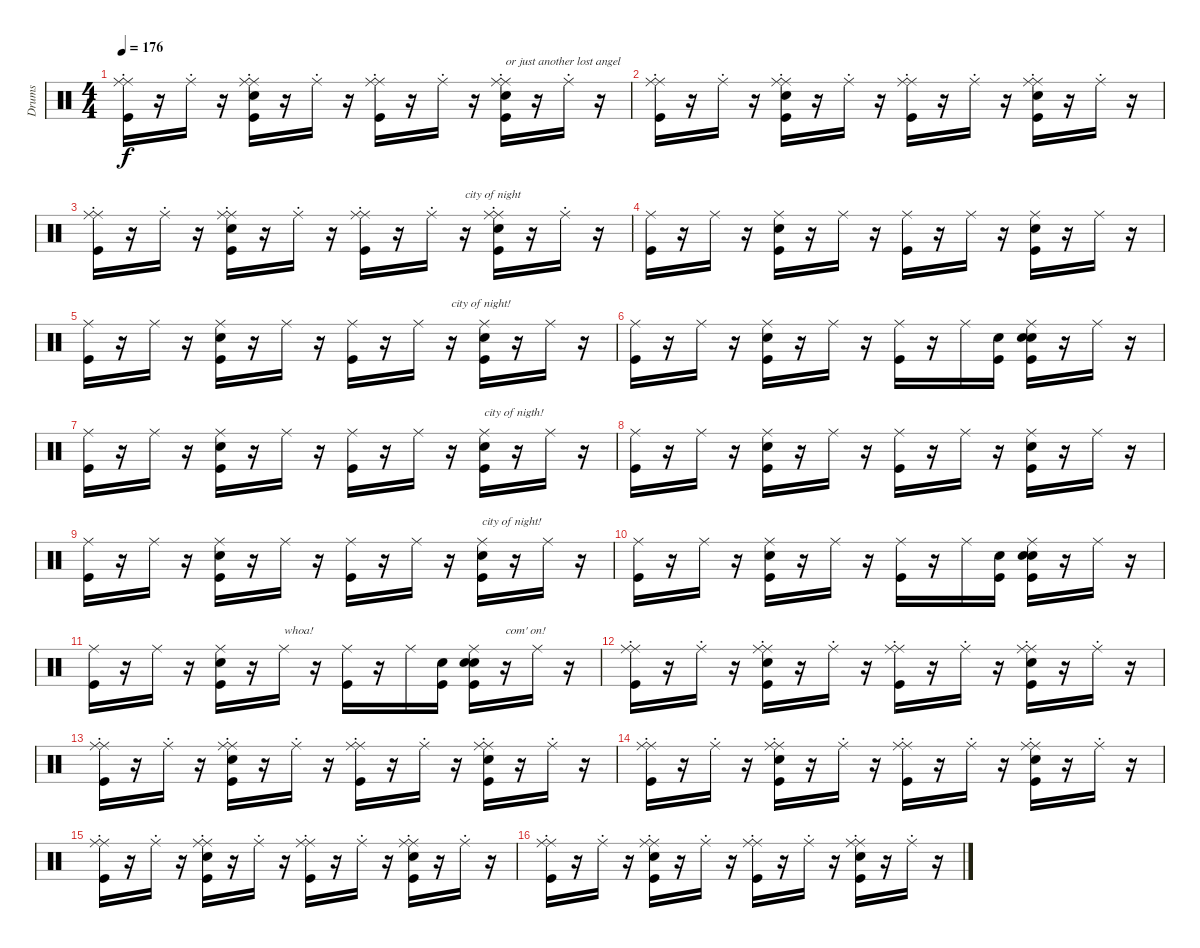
\track ("Drums" "Drums") {instrument percussion}
\staff {score}
\articulation defaults
\ts (4 4)
\tempo 176
\clef neutral
\ks c
("Ride (middle)" "Kick (hit)" "Ride (choke)").16{dy f} r.16 "Ride (choke)".16 r.16 ("Ride (middle)" "Kick (hit)" "Snare (hit) 2" "Ride (choke)").16 r.16 "Ride (choke)".16 r.16 ("Ride (middle)" "Kick (hit)" "Ride (choke)").16 r.16 "Ride (choke)".16 r.16 ("Kick (hit)" "Snare (hit) 2" "Ride (choke)" "Ride (middle)").16{txt "or just another lost angel"} r.16 "Ride (choke)".16 r.16 |
("Ride (middle)" "Kick (hit)" "Ride (choke)").16 r.16 "Ride (choke)".16 r.16 ("Ride (middle)" "Kick (hit)" "Snare (hit) 2" "Ride (choke)").16 r.16 "Ride (choke)".16 r.16 ("Ride (middle)" "Kick (hit)" "Ride (choke)").16 r.16 "Ride (choke)".16 r.16 ("Ride (middle)" "Kick (hit)" "Snare (hit) 2" "Ride (choke)").16 r.16 "Ride (choke)".16 r.16 |
("Ride (middle)" "Kick (hit)" "Ride (choke)").16 r.16 "Ride (choke)".16 r.16 ("Ride (middle)" "Kick (hit)" "Snare (hit) 2" "Ride (choke)").16 r.16 "Ride (choke)".16 r.16 ("Ride (middle)" "Kick (hit)" "Ride (choke)").16 r.16 "Ride (choke)".16 r.16{txt "city of night"} ("Kick (hit)" "Snare (hit) 2" "Ride (choke)" "Ride (middle)").16 r.16 "Ride (choke)".16 r.16 |
("Kick (hit)" "Ride (middle)").16 r.16 "Ride (middle)".16 r.16 ("Snare (hit) 2" "Kick (hit)" "Ride (middle)").16 r.16 "Ride (middle)".16 r.16 ("Kick (hit)" "Ride (middle)").16 r.16 "Ride (middle)".16 r.16 ("Snare (hit) 2" "Kick (hit)" "Ride (middle)").16 r.16 "Ride (middle)".16 r.16 |
("Kick (hit)" "Ride (middle)").16 r.16 "Ride (middle)".16 r.16 ("Kick (hit)" "Snare (hit) 2" "Ride (middle)").16 r.16 "Ride (middle)".16 r.16 ("Kick (hit)" "Ride (middle)").16 r.16 "Ride (middle)".16 r.16{txt "city of night!"} ("Kick (hit)" "Snare (hit) 2" "Ride (middle)").16 r.16 "Ride (middle)".16 r.16 |
("Kick (hit)" "Ride (middle)").16 r.16 "Ride (middle)".16 r.16 ("Kick (hit)" "Snare (hit) 2" "Ride (middle)").16 r.16 "Ride (middle)".16 r.16 ("Kick (hit)" "Ride (middle)").16 r.16 "Ride (middle)".16 ("Snare (hit)" "Kick (hit)").16 ("Snare (hit)" "Kick (hit)" "Snare (hit) 2" "Ride (middle)").16 r.16 "Ride (middle)".16 r.16 |
("Kick (hit)" "Ride (middle)").16 r.16 "Ride (middle)".16 r.16 ("Snare (hit) 2" "Kick (hit)" "Ride (middle)").16 r.16 "Ride (middle)".16 r.16 ("Kick (hit)" "Ride (middle)").16 r.16 "Ride (middle)".16 r.16 ("Snare (hit) 2" "Kick (hit)" "Ride (middle)").16{txt "city of nigth!"} r.16 "Ride (middle)".16 r.16 |
("Kick (hit)" "Ride (middle)").16 r.16 "Ride (middle)".16 r.16 ("Snare (hit) 2" "Kick (hit)" "Ride (middle)").16 r.16 "Ride (middle)".16 r.16 ("Kick (hit)" "Ride (middle)").16 r.16 "Ride (middle)".16 r.16 ("Snare (hit) 2" "Kick (hit)" "Ride (middle)").16 r.16 "Ride (middle)".16 r.16 |
("Kick (hit)" "Ride (middle)").16 r.16 "Ride (middle)".16 r.16 ("Kick (hit)" "Snare (hit) 2" "Ride (middle)").16 r.16 "Ride (middle)".16 r.16 ("Kick (hit)" "Ride (middle)").16 r.16 "Ride (middle)".16 r.16 ("Kick (hit)" "Snare (hit) 2" "Ride (middle)").16{txt "city of night!"} r.16 "Ride (middle)".16 r.16 |
("Kick (hit)" "Ride (middle)").16 r.16 "Ride (middle)".16 r.16 ("Kick (hit)" "Snare (hit) 2" "Ride (middle)").16 r.16 "Ride (middle)".16 r.16 ("Kick (hit)" "Ride (middle)").16 r.16 "Ride (middle)".16 ("Snare (hit)" "Kick (hit)").16 ("Snare (hit)" "Kick (hit)" "Snare (hit) 2" "Ride (middle)").16 r.16 "Ride (middle)".16 r.16 |
("Kick (hit)" "Ride (middle)").16 r.16 "Ride (middle)".16 r.16 ("Kick (hit)" "Snare (hit) 2" "Ride (middle)").16 r.16 "Ride (middle)".16{txt "whoa!"} r.16 ("Kick (hit)" "Ride (middle)").16 r.16 "Ride (middle)".16 ("Snare (hit)" "Kick (hit)").16 ("Snare (hit)" "Kick (hit)" "Snare (hit) 2" "Ride (middle)").16 r.16{txt "com' on!"} "Ride (middle)".16 r.16 |
("Ride (middle)" "Kick (hit)" "Ride (choke)").16 r.16 "Ride (choke)".16 r.16 ("Ride (middle)" "Kick (hit)" "Snare (hit) 2" "Ride (choke)").16 r.16 "Ride (choke)".16 r.16 ("Ride (middle)" "Kick (hit)" "Ride (choke)").16 r.16 "Ride (choke)".16 r.16 ("Ride (middle)" "Kick (hit)" "Snare (hit) 2" "Ride (choke)").16 r.16 "Ride (choke)".16 r.16 |
("Ride (middle)" "Kick (hit)" "Ride (choke)").16 r.16 "Ride (choke)".16 r.16 ("Ride (middle)" "Kick (hit)" "Snare (hit) 2" "Ride (choke)").16 r.16 "Ride (choke)".16 r.16 ("Ride (middle)" "Kick (hit)" "Ride (choke)").16 r.16 "Ride (choke)".16 r.16 ("Kick (hit)" "Snare (hit) 2" "Ride (choke)" "Ride (middle)").16 r.16 "Ride (choke)".16 r.16 |
("Ride (middle)" "Kick (hit)" "Ride (choke)").16 r.16 "Ride (choke)".16 r.16 ("Ride (middle)" "Kick (hit)" "Snare (hit) 2" "Ride (choke)").16 r.16 "Ride (choke)".16 r.16 ("Ride (middle)" "Kick (hit)" "Ride (choke)").16 r.16 "Ride (choke)".16 r.16 ("Ride (middle)" "Kick (hit)" "Snare (hit) 2" "Ride (choke)").16 r.16 "Ride (choke)".16 r.16 |
("Ride (middle)" "Kick (hit)" "Ride (choke)").16 r.16 "Ride (choke)".16 r.16 ("Ride (middle)" "Kick (hit)" "Snare (hit) 2" "Ride (choke)").16 r.16 "Ride (choke)".16 r.16 ("Ride (middle)" "Kick (hit)" "Ride (choke)").16 r.16 "Ride (choke)".16 r.16 ("Kick (hit)" "Snare (hit) 2" "Ride (choke)" "Ride (middle)").16 r.16 "Ride (choke)".16 r.16 |
("Ride (middle)" "Kick (hit)" "Ride (choke)").16 r.16 "Ride (choke)".16 r.16 ("Ride (middle)" "Kick (hit)" "Snare (hit) 2" "Ride (choke)").16 r.16 "Ride (choke)".16 r.16 ("Ride (middle)" "Kick (hit)" "Ride (choke)").16 r.16 "Ride (choke)".16 r.16 ("Ride (middle)" "Kick (hit)" "Snare (hit) 2" "Ride (choke)").16 r.16 "Ride (choke)".16 r.16
